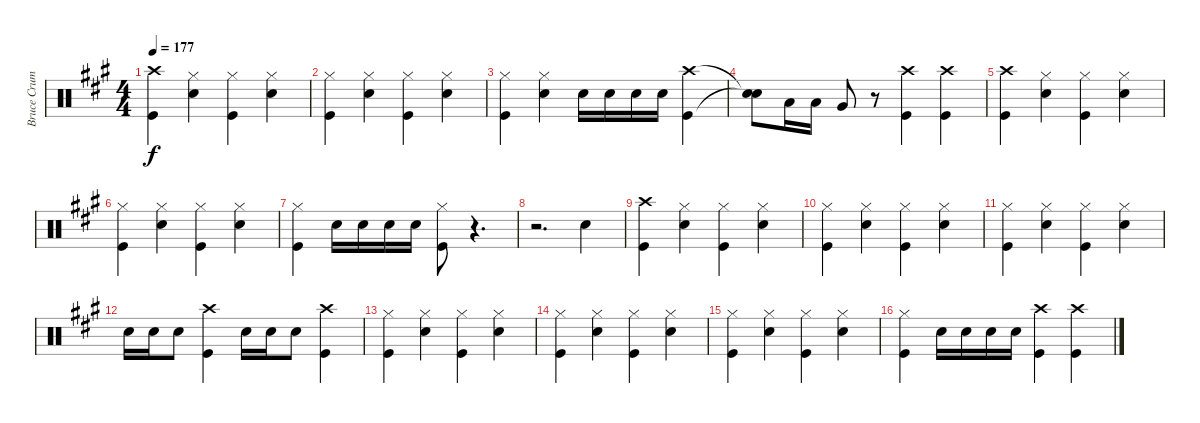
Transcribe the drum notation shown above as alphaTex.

\track ("Bruce Crump Drums" "Bruce Crum") {instrument percussion}
\staff {score}
\articulation defaults
\ts (4 4)
\tempo 177
\clef neutral
\ks a
("Crash high (hit)" "Kick (hit)").4{dy f} ("Hi-Hat (closed)" "Snare (hit) 2").4 ("Hi-Hat (closed)" "Kick (hit)").4 ("Hi-Hat (closed)" "Snare (hit) 2").4 |
("Hi-Hat (closed)" "Kick (hit)").4 ("Hi-Hat (closed)" "Snare (hit) 2").4 ("Hi-Hat (closed)" "Kick (hit)").4 ("Hi-Hat (closed)" "Snare (hit) 2").4 |
("Hi-Hat (closed)" "Kick (hit)").4 ("Hi-Hat (closed)" "Snare (hit) 2").4 "Snare (hit) 2".16 "Snare (hit) 2".16 "Snare (hit) 2".16 "Snare (hit) 2".16 ("Crash high (hit)" "Kick (hit)").4 |
("Snare (hit)"{t} "Snare (hit)"{t}).8 "Low Tom (hit)".16 "Low Tom (hit)".16 "Very Low Tom (hit)".8 r.8 ("Crash high (hit)" "Kick (hit)").4 ("Crash high (hit)" "Kick (hit)").4 |
("Crash high (hit)" "Kick (hit)").4 ("Hi-Hat (closed)" "Snare (hit) 2").4 ("Hi-Hat (closed)" "Kick (hit)").4 ("Hi-Hat (closed)" "Snare (hit) 2").4 |
("Hi-Hat (closed)" "Kick (hit)").4 ("Hi-Hat (closed)" "Snare (hit) 2").4 ("Hi-Hat (closed)" "Kick (hit)").4 ("Hi-Hat (closed)" "Snare (hit) 2").4 |
("Hi-Hat (closed)" "Kick (hit)").4 "Snare (hit) 2".16 "Snare (hit) 2".16 "Snare (hit) 2".16 "Snare (hit) 2".16 ("Hi-Hat (closed)" "Kick (hit)").8 r.4{d} |
r.2{d} "Snare (hit) 2".4 |
("Crash high (hit)" "Kick (hit)").4 ("Hi-Hat (closed)" "Snare (hit) 2").4 ("Hi-Hat (closed)" "Kick (hit)").4 ("Hi-Hat (closed)" "Snare (hit) 2").4 |
("Hi-Hat (closed)" "Kick (hit)").4 ("Hi-Hat (closed)" "Snare (hit) 2").4 ("Hi-Hat (closed)" "Kick (hit)").4 ("Hi-Hat (closed)" "Snare (hit) 2").4 |
("Hi-Hat (closed)" "Kick (hit)").4 ("Hi-Hat (closed)" "Snare (hit) 2").4 ("Hi-Hat (closed)" "Kick (hit)").4 ("Hi-Hat (closed)" "Snare (hit) 2").4 |
"Snare (hit) 2".16 "Snare (hit) 2".16 "Snare (hit) 2".8 ("Crash high (hit)" "Kick (hit)").4 "Snare (hit) 2".16 "Snare (hit) 2".16 "Snare (hit) 2".8 ("Crash high (hit)" "Kick (hit)").4 |
("Hi-Hat (closed)" "Kick (hit)").4 ("Hi-Hat (closed)" "Snare (hit) 2").4 ("Hi-Hat (closed)" "Kick (hit)").4 ("Hi-Hat (closed)" "Snare (hit) 2").4 |
("Hi-Hat (closed)" "Kick (hit)").4 ("Hi-Hat (closed)" "Snare (hit) 2").4 ("Hi-Hat (closed)" "Kick (hit)").4 ("Hi-Hat (closed)" "Snare (hit) 2").4 |
("Hi-Hat (closed)" "Kick (hit)").4 ("Hi-Hat (closed)" "Snare (hit) 2").4 ("Hi-Hat (closed)" "Kick (hit)").4 ("Hi-Hat (closed)" "Snare (hit) 2").4 |
("Hi-Hat (closed)" "Kick (hit)").4 "Snare (hit) 2".16 "Snare (hit) 2".16 "Snare (hit) 2".16 "Snare (hit) 2".16 ("Crash high (hit)" "Kick (hit)").4 ("Crash high (hit)" "Kick (hit)").4
